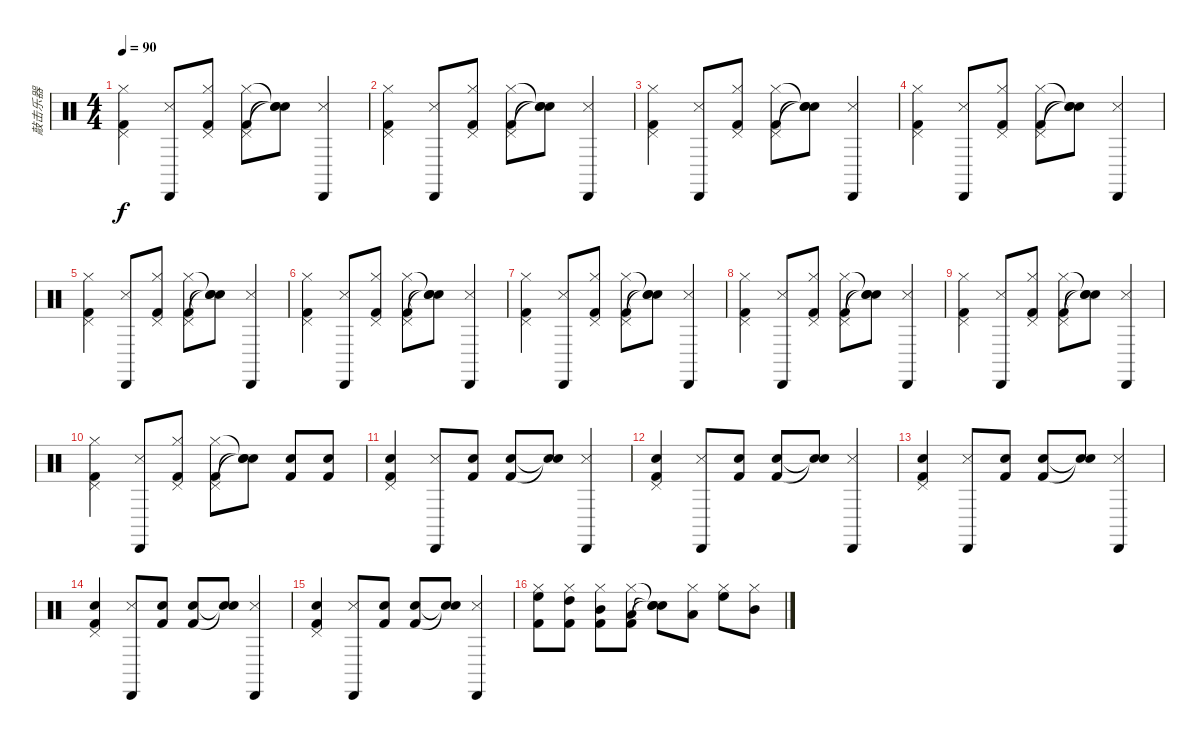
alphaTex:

\track ("敲击乐器" "敲击乐器") {instrument percussion}
\staff {score}
\articulation defaults
\ts (4 4)
\tempo 90
\clef neutral
\ks c
("Hi-Hat (closed)" "Pedal Hi-Hat (hit)" "Kick (hit) 2").4{dy f} ("Snare (side stick) 3" "Cabasa (hit)").8 ("Hi-Hat (closed)" "Pedal Hi-Hat (hit)" "Kick (hit) 2").8 ("Hi-Hat (closed)" "Pedal Hi-Hat (hit)" "Kick (hit) 2").8 ("Snare (hit)"{t} "Snare (hit)"{t} "Snare (hit)"{t}).8 ("Snare (side stick) 3" "Cabasa (hit)").4 |
("Hi-Hat (closed)" "Pedal Hi-Hat (hit)" "Kick (hit) 2").4 ("Snare (side stick) 3" "Cabasa (hit)").8 ("Hi-Hat (closed)" "Pedal Hi-Hat (hit)" "Kick (hit) 2").8 ("Hi-Hat (closed)" "Pedal Hi-Hat (hit)" "Kick (hit) 2").8 ("Snare (hit)"{t} "Snare (hit)"{t} "Snare (hit)"{t}).8 ("Snare (side stick) 3" "Cabasa (hit)").4 |
("Hi-Hat (closed)" "Pedal Hi-Hat (hit)" "Kick (hit) 2").4 ("Snare (side stick) 3" "Cabasa (hit)").8 ("Hi-Hat (closed)" "Pedal Hi-Hat (hit)" "Kick (hit) 2").8 ("Hi-Hat (closed)" "Pedal Hi-Hat (hit)" "Kick (hit) 2").8 ("Snare (hit)"{t} "Snare (hit)"{t} "Snare (hit)"{t}).8 ("Snare (side stick) 3" "Cabasa (hit)").4 |
("Hi-Hat (closed)" "Pedal Hi-Hat (hit)" "Kick (hit) 2").4 ("Snare (side stick) 3" "Cabasa (hit)").8 ("Hi-Hat (closed)" "Pedal Hi-Hat (hit)" "Kick (hit) 2").8 ("Hi-Hat (closed)" "Pedal Hi-Hat (hit)" "Kick (hit) 2").8 ("Snare (hit)"{t} "Snare (hit)"{t} "Snare (hit)"{t}).8 ("Snare (side stick) 3" "Cabasa (hit)").4 |
("Hi-Hat (closed)" "Pedal Hi-Hat (hit)" "Kick (hit) 2").4 ("Snare (side stick) 3" "Cabasa (hit)").8 ("Hi-Hat (closed)" "Pedal Hi-Hat (hit)" "Kick (hit) 2").8 ("Hi-Hat (closed)" "Pedal Hi-Hat (hit)" "Kick (hit) 2").8 ("Snare (hit)"{t} "Snare (hit)"{t} "Snare (hit)"{t}).8 ("Snare (side stick) 3" "Cabasa (hit)").4 |
("Hi-Hat (closed)" "Pedal Hi-Hat (hit)" "Kick (hit) 2").4 ("Snare (side stick) 3" "Cabasa (hit)").8 ("Hi-Hat (closed)" "Pedal Hi-Hat (hit)" "Kick (hit) 2").8 ("Hi-Hat (closed)" "Pedal Hi-Hat (hit)" "Kick (hit) 2").8 ("Snare (hit)"{t} "Snare (hit)"{t} "Snare (hit)"{t}).8 ("Snare (side stick) 3" "Cabasa (hit)").4 |
("Hi-Hat (closed)" "Pedal Hi-Hat (hit)" "Kick (hit) 2").4 ("Snare (side stick) 3" "Cabasa (hit)").8 ("Hi-Hat (closed)" "Pedal Hi-Hat (hit)" "Kick (hit) 2").8 ("Hi-Hat (closed)" "Pedal Hi-Hat (hit)" "Kick (hit) 2").8 ("Snare (hit)"{t} "Snare (hit)"{t} "Snare (hit)"{t}).8 ("Snare (side stick) 3" "Cabasa (hit)").4 |
("Hi-Hat (closed)" "Pedal Hi-Hat (hit)" "Kick (hit) 2").4 ("Snare (side stick) 3" "Cabasa (hit)").8 ("Hi-Hat (closed)" "Pedal Hi-Hat (hit)" "Kick (hit) 2").8 ("Hi-Hat (closed)" "Pedal Hi-Hat (hit)" "Kick (hit) 2").8 ("Snare (hit)"{t} "Snare (hit)"{t} "Snare (hit)"{t}).8 ("Snare (side stick) 3" "Cabasa (hit)").4 |
("Hi-Hat (closed)" "Pedal Hi-Hat (hit)" "Kick (hit) 2").4 ("Snare (side stick) 3" "Cabasa (hit)").8 ("Hi-Hat (closed)" "Pedal Hi-Hat (hit)" "Kick (hit) 2").8 ("Hi-Hat (closed)" "Pedal Hi-Hat (hit)" "Kick (hit) 2").8 ("Snare (hit)"{t} "Snare (hit)"{t} "Snare (hit)"{t}).8 ("Snare (side stick) 3" "Cabasa (hit)").4 |
("Hi-Hat (closed)" "Pedal Hi-Hat (hit)" "Kick (hit) 2").4 ("Snare (side stick) 3" "Cabasa (hit)").8 ("Hi-Hat (closed)" "Pedal Hi-Hat (hit)" "Kick (hit) 2").8 ("Hi-Hat (closed)" "Pedal Hi-Hat (hit)" "Kick (hit) 2").8 ("Snare (hit)"{t} "Snare (hit)"{t} "Snare (hit)"{t}).8 ("Snare (hit) 2" "Kick (hit) 2").8 ("Snare (hit) 2" "Kick (hit) 2").8 |
("Snare (hit) 2" "Pedal Hi-Hat (hit)" "Kick (hit) 2").4 ("Snare (side stick) 3" "Cabasa (hit)").8 ("Snare (hit) 2" "Kick (hit) 2").8 ("Snare (hit) 2" "Kick (hit) 2").8 ("Snare (hit)"{t} "Snare (hit)"{t}).8 ("Snare (side stick) 3" "Cabasa (hit)").4 |
("Snare (hit) 2" "Pedal Hi-Hat (hit)" "Kick (hit) 2").4 ("Snare (side stick) 3" "Cabasa (hit)").8 ("Snare (hit) 2" "Kick (hit) 2").8 ("Snare (hit) 2" "Kick (hit) 2").8 ("Snare (hit)"{t} "Snare (hit)"{t}).8 ("Snare (side stick) 3" "Cabasa (hit)").4 |
("Snare (hit) 2" "Pedal Hi-Hat (hit)" "Kick (hit) 2").4 ("Snare (side stick) 3" "Cabasa (hit)").8 ("Snare (hit) 2" "Kick (hit) 2").8 ("Snare (hit) 2" "Kick (hit) 2").8 ("Snare (hit)"{t} "Snare (hit)"{t}).8 ("Snare (side stick) 3" "Cabasa (hit)").4 |
("Snare (hit) 2" "Pedal Hi-Hat (hit)" "Kick (hit) 2").4 ("Snare (side stick) 3" "Cabasa (hit)").8 ("Snare (hit) 2" "Kick (hit) 2").8 ("Snare (hit) 2" "Kick (hit) 2").8 ("Snare (hit)"{t} "Snare (hit)"{t}).8 ("Snare (side stick) 3" "Cabasa (hit)").4 |
("Snare (hit) 2" "Pedal Hi-Hat (hit)" "Kick (hit) 2").4 ("Snare (side stick) 3" "Cabasa (hit)").8 ("Snare (hit) 2" "Kick (hit) 2").8 ("Snare (hit) 2" "Kick (hit) 2").8 ("Snare (hit)"{t} "Snare (hit)"{t}).8 ("Snare (side stick) 3" "Cabasa (hit)").4 |
("High Floor Tom (hit)" "Hi-Hat (closed)" "Kick (hit) 2").8 ("High Tom (hit)" "Hi-Hat (closed)" "Kick (hit) 2").8 ("Mid Tom (hit)" "Hi-Hat (closed)" "Kick (hit) 2").8 ("Low Tom (hit)" "Hi-Hat (closed)" "Kick (hit) 2").8 ("Snare (hit)"{t} "Snare (hit)"{t} "Snare (hit)"{t}).8 ("Hi-Hat (closed)" "Low Tom (hit)").8 ("Hi-Hat (closed)" "High Floor Tom (hit)").8 ("Hi-Hat (closed)" "Mid Tom (hit)").8
